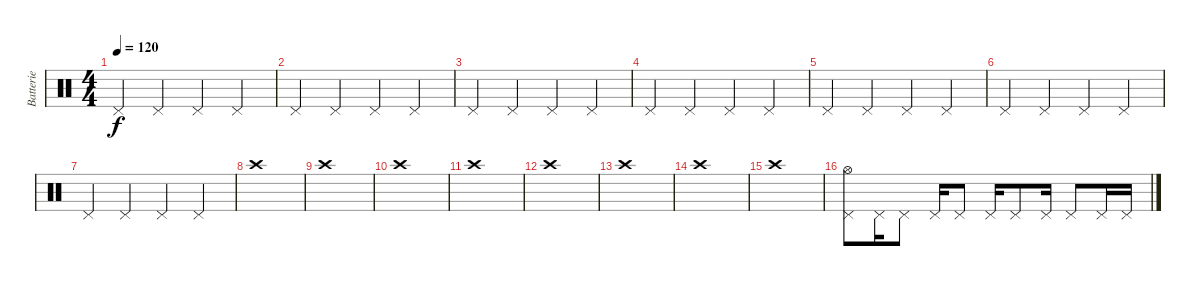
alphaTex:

\track ("Batterie" "Batterie") {instrument percussion}
\staff {score}
\articulation defaults
\ts (4 4)
\tempo 120
\clef neutral
\ks c "Pedal Hi-Hat (hit)".4{dy f} "Pedal Hi-Hat (hit)".4 "Pedal Hi-Hat (hit)".4 "Pedal Hi-Hat (hit)".4
|
"Pedal Hi-Hat (hit)".4 "Pedal Hi-Hat (hit)".4 "Pedal Hi-Hat (hit)".4 "Pedal Hi-Hat (hit)".4 |
"Pedal Hi-Hat (hit)".4 "Pedal Hi-Hat (hit)".4 "Pedal Hi-Hat (hit)".4 "Pedal Hi-Hat (hit)".4 |
"Pedal Hi-Hat (hit)".4 "Pedal Hi-Hat (hit)".4 "Pedal Hi-Hat (hit)".4 "Pedal Hi-Hat (hit)".4 |
"Pedal Hi-Hat (hit)".4 "Pedal Hi-Hat (hit)".4 "Pedal Hi-Hat (hit)".4 "Pedal Hi-Hat (hit)".4 |
"Pedal Hi-Hat (hit)".4 "Pedal Hi-Hat (hit)".4 "Pedal Hi-Hat (hit)".4 "Pedal Hi-Hat (hit)".4 |
"Pedal Hi-Hat (hit)".4 "Pedal Hi-Hat (hit)".4 "Pedal Hi-Hat (hit)".4 "Pedal Hi-Hat (hit)".4 |
"Crash high (hit)".1 |
"Crash high (hit)".1 |
"Crash high (hit)".1 |
"Crash high (hit)".1 |
"Crash high (hit)".1 |
"Crash high (hit)".1 |
"Crash high (hit)".1 |
"Crash high (hit)".1 |
("Pedal Hi-Hat (hit)" "Hi-Hat (open)").8 "Pedal Hi-Hat (hit)".16 "Pedal Hi-Hat (hit)".8 "Pedal Hi-Hat (hit)".16 "Pedal Hi-Hat (hit)".8 "Pedal Hi-Hat (hit)".16 "Pedal Hi-Hat (hit)".8 "Pedal Hi-Hat (hit)".16 "Pedal Hi-Hat (hit)".8 "Pedal Hi-Hat (hit)".16 "Pedal Hi-Hat (hit)".16
